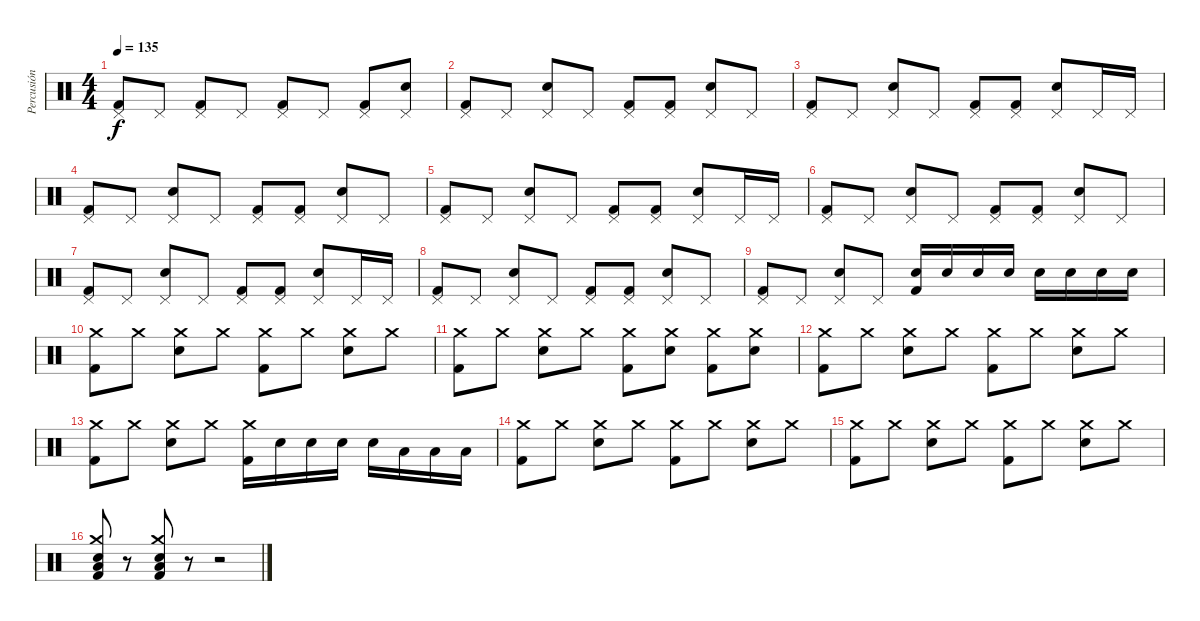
\track ("Percusión" "Percusión") {instrument percussion}
\staff {score}
\articulation defaults
\ts (4 4)
\tempo 135
\clef neutral
\ks c
("Kick (hit) 2" "Pedal Hi-Hat (hit)").8{dy f} "Pedal Hi-Hat (hit)".8 ("Kick (hit) 2" "Pedal Hi-Hat (hit)").8 "Pedal Hi-Hat (hit)".8 ("Kick (hit) 2" "Pedal Hi-Hat (hit)").8 "Pedal Hi-Hat (hit)".8 ("Kick (hit) 2" "Pedal Hi-Hat (hit)").8 ("Snare (hit) 2" "Pedal Hi-Hat (hit)").8 |
("Kick (hit) 2" "Pedal Hi-Hat (hit)").8 "Pedal Hi-Hat (hit)".8 ("Snare (hit) 2" "Pedal Hi-Hat (hit)").8 "Pedal Hi-Hat (hit)".8 ("Kick (hit) 2" "Pedal Hi-Hat (hit)").8 ("Kick (hit) 2" "Pedal Hi-Hat (hit)").8 ("Snare (hit) 2" "Pedal Hi-Hat (hit)").8 "Pedal Hi-Hat (hit)".8 |
("Kick (hit) 2" "Pedal Hi-Hat (hit)").8 "Pedal Hi-Hat (hit)".8 ("Snare (hit) 2" "Pedal Hi-Hat (hit)").8 "Pedal Hi-Hat (hit)".8 ("Kick (hit) 2" "Pedal Hi-Hat (hit)").8 ("Kick (hit) 2" "Pedal Hi-Hat (hit)").8 ("Snare (hit) 2" "Pedal Hi-Hat (hit)").8 "Pedal Hi-Hat (hit)".16 "Pedal Hi-Hat (hit)".16 |
("Kick (hit) 2" "Pedal Hi-Hat (hit)").8 "Pedal Hi-Hat (hit)".8 ("Snare (hit) 2" "Pedal Hi-Hat (hit)").8 "Pedal Hi-Hat (hit)".8 ("Kick (hit) 2" "Pedal Hi-Hat (hit)").8 ("Kick (hit) 2" "Pedal Hi-Hat (hit)").8 ("Snare (hit) 2" "Pedal Hi-Hat (hit)").8 "Pedal Hi-Hat (hit)".8 |
("Kick (hit) 2" "Pedal Hi-Hat (hit)").8 "Pedal Hi-Hat (hit)".8 ("Snare (hit) 2" "Pedal Hi-Hat (hit)").8 "Pedal Hi-Hat (hit)".8 ("Kick (hit) 2" "Pedal Hi-Hat (hit)").8 ("Kick (hit) 2" "Pedal Hi-Hat (hit)").8 ("Snare (hit) 2" "Pedal Hi-Hat (hit)").8 "Pedal Hi-Hat (hit)".16 "Pedal Hi-Hat (hit)".16 |
("Kick (hit) 2" "Pedal Hi-Hat (hit)").8 "Pedal Hi-Hat (hit)".8 ("Snare (hit) 2" "Pedal Hi-Hat (hit)").8 "Pedal Hi-Hat (hit)".8 ("Kick (hit) 2" "Pedal Hi-Hat (hit)").8 ("Kick (hit) 2" "Pedal Hi-Hat (hit)").8 ("Snare (hit) 2" "Pedal Hi-Hat (hit)").8 "Pedal Hi-Hat (hit)".8 |
("Kick (hit) 2" "Pedal Hi-Hat (hit)").8 "Pedal Hi-Hat (hit)".8 ("Snare (hit) 2" "Pedal Hi-Hat (hit)").8 "Pedal Hi-Hat (hit)".8 ("Kick (hit) 2" "Pedal Hi-Hat (hit)").8 ("Kick (hit) 2" "Pedal Hi-Hat (hit)").8 ("Snare (hit) 2" "Pedal Hi-Hat (hit)").8 "Pedal Hi-Hat (hit)".16 "Pedal Hi-Hat (hit)".16 |
("Kick (hit) 2" "Pedal Hi-Hat (hit)").8 "Pedal Hi-Hat (hit)".8 ("Snare (hit) 2" "Pedal Hi-Hat (hit)").8 "Pedal Hi-Hat (hit)".8 ("Kick (hit) 2" "Pedal Hi-Hat (hit)").8 ("Kick (hit) 2" "Pedal Hi-Hat (hit)").8 ("Snare (hit) 2" "Pedal Hi-Hat (hit)").8 "Pedal Hi-Hat (hit)".8 |
("Kick (hit) 2" "Pedal Hi-Hat (hit)").8 "Pedal Hi-Hat (hit)".8 ("Snare (hit) 2" "Pedal Hi-Hat (hit)").8 "Pedal Hi-Hat (hit)".8 ("Kick (hit) 2" "Snare (hit) 2").16 "Snare (hit) 2".16 "Snare (hit) 2".16 "Snare (hit) 2".16 "Snare (hit) 2".16 "Snare (hit) 2".16 "Snare (hit) 2".16 "Snare (hit) 2".16 |
("Kick (hit) 2" "Crash medium (hit)").8 "Crash medium (hit)".8 ("Snare (hit) 2" "Crash medium (hit)").8 "Crash medium (hit)".8 ("Kick (hit) 2" "Crash medium (hit)").8 "Crash medium (hit)".8 ("Snare (hit) 2" "Crash medium (hit)").8 "Crash medium (hit)".8 |
("Kick (hit) 2" "Crash medium (hit)").8 "Crash medium (hit)".8 ("Snare (hit) 2" "Crash medium (hit)").8 "Crash medium (hit)".8 ("Kick (hit) 2" "Crash medium (hit)").8 ("Snare (hit) 2" "Crash medium (hit)").8 ("Kick (hit) 2" "Crash medium (hit)").8 ("Snare (hit) 2" "Crash medium (hit)").8 |
("Kick (hit) 2" "Crash medium (hit)").8 "Crash medium (hit)".8 ("Snare (hit) 2" "Crash medium (hit)").8 "Crash medium (hit)".8 ("Kick (hit) 2" "Crash medium (hit)").8 "Crash medium (hit)".8 ("Snare (hit) 2" "Crash medium (hit)").8 "Crash medium (hit)".8 |
("Kick (hit) 2" "Crash medium (hit)").8 "Crash medium (hit)".8 ("Snare (hit) 2" "Crash medium (hit)").8 "Crash medium (hit)".8 ("Kick (hit) 2" "Crash medium (hit)").16 "Snare (hit) 2".16 "Snare (hit) 2".16 "Snare (hit) 2".16 "Snare (hit) 2".16 "Low Tom (hit)".16 "Low Tom (hit)".16 "Low Tom (hit)".16 |
("Kick (hit) 2" "Crash medium (hit)").8 "Crash medium (hit)".8 ("Snare (hit) 2" "Crash medium (hit)").8 "Crash medium (hit)".8 ("Kick (hit) 2" "Crash medium (hit)").8 "Crash medium (hit)".8 ("Snare (hit) 2" "Crash medium (hit)").8 "Crash medium (hit)".8 |
("Kick (hit) 2" "Crash medium (hit)").8 "Crash medium (hit)".8 ("Snare (hit) 2" "Crash medium (hit)").8 "Crash medium (hit)".8 ("Kick (hit) 2" "Crash medium (hit)").8 "Crash medium (hit)".8 ("Snare (hit) 2" "Crash medium (hit)").8 "Crash medium (hit)".8 |
("Low Tom (hit)" "Kick (hit) 2" "Snare (hit) 2" "Crash medium (hit)").8 r.8 ("Low Tom (hit)" "Kick (hit) 2" "Snare (hit) 2" "Crash medium (hit)").8 r.8 r.2
